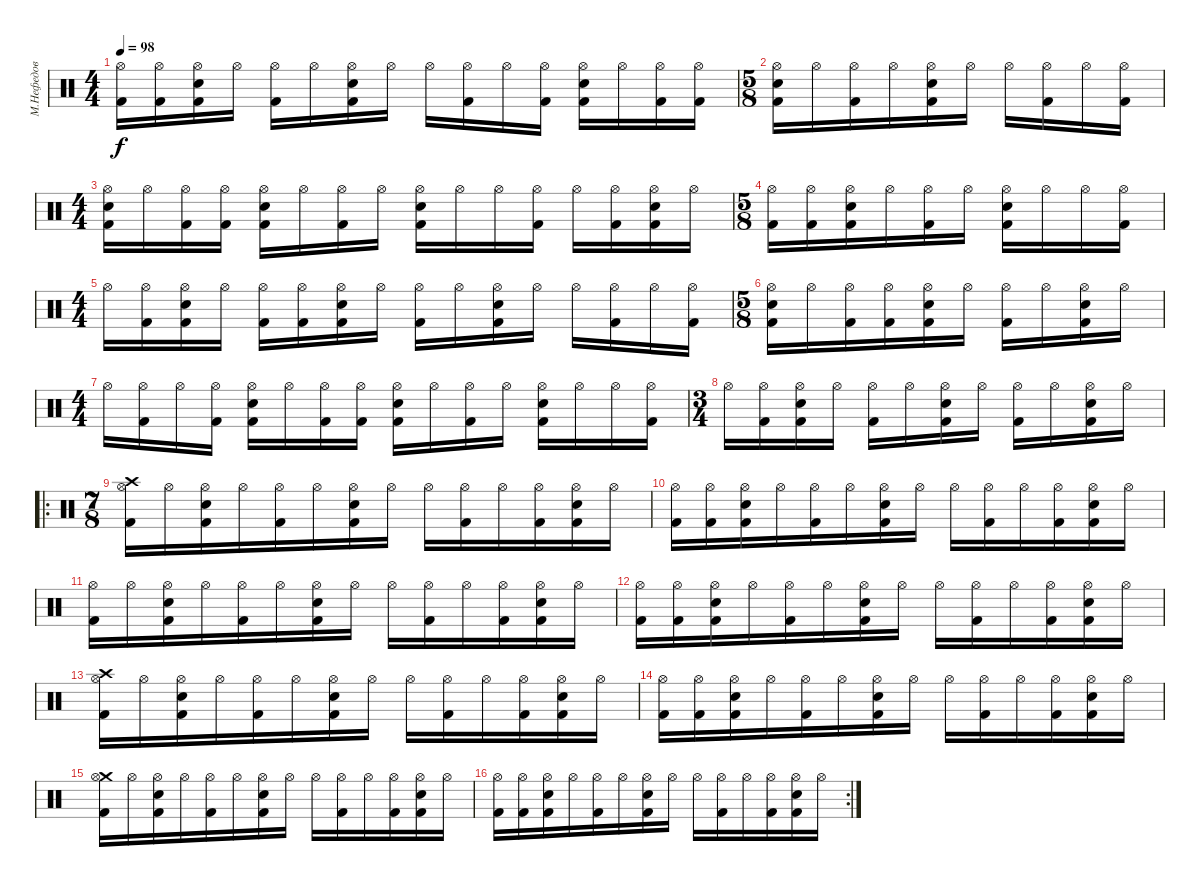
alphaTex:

\track ("М.Нефедов" "М.Нефедов") {instrument percussion}
\staff {score}
\articulation defaults
\ts (4 4)
\tempo 98
\clef neutral
\ks c
("Hi-Hat (open)" "Kick (hit) 2").16{dy f} ("Hi-Hat (open)" "Kick (hit) 2").16 ("Hi-Hat (open)" "Snare (hit) 2" "Kick (hit) 2").16 "Hi-Hat (open)".16 ("Hi-Hat (open)" "Kick (hit) 2").16 "Hi-Hat (open)".16 ("Hi-Hat (open)" "Snare (hit) 2" "Kick (hit) 2").16 "Hi-Hat (open)".16 "Hi-Hat (open)".16 ("Hi-Hat (open)" "Kick (hit) 2").16 "Hi-Hat (open)".16 ("Hi-Hat (open)" "Kick (hit) 2").16 ("Hi-Hat (open)" "Snare (hit) 2" "Kick (hit) 2").16 "Hi-Hat (open)".16 ("Hi-Hat (open)" "Kick (hit) 2").16 ("Hi-Hat (open)" "Kick (hit) 2").16 |
\ts (5 8)
("Hi-Hat (open)" "Snare (hit) 2" "Kick (hit) 2").16 "Hi-Hat (open)".16 ("Hi-Hat (open)" "Kick (hit) 2").16 "Hi-Hat (open)".16 ("Hi-Hat (open)" "Snare (hit) 2" "Kick (hit) 2").16 "Hi-Hat (open)".16 "Hi-Hat (open)".16 ("Hi-Hat (open)" "Kick (hit) 2").16 "Hi-Hat (open)".16 ("Hi-Hat (open)" "Kick (hit) 2").16 |
\ts (4 4)
("Hi-Hat (open)" "Snare (hit) 2" "Kick (hit) 2").16 "Hi-Hat (open)".16 ("Hi-Hat (open)" "Kick (hit) 2").16 ("Hi-Hat (open)" "Kick (hit) 2").16 ("Hi-Hat (open)" "Snare (hit) 2" "Kick (hit) 2").16 "Hi-Hat (open)".16 ("Hi-Hat (open)" "Kick (hit) 2").16 "Hi-Hat (open)".16 ("Hi-Hat (open)" "Snare (hit) 2" "Kick (hit) 2").16 "Hi-Hat (open)".16 "Hi-Hat (open)".16 ("Hi-Hat (open)" "Kick (hit) 2").16 "Hi-Hat (open)".16 ("Hi-Hat (open)" "Kick (hit) 2").16 ("Hi-Hat (open)" "Snare (hit) 2" "Kick (hit) 2").16 "Hi-Hat (open)".16 |
\ts (5 8)
("Hi-Hat (open)" "Kick (hit) 2").16 ("Hi-Hat (open)" "Kick (hit) 2").16 ("Hi-Hat (open)" "Snare (hit) 2" "Kick (hit) 2").16 "Hi-Hat (open)".16 ("Hi-Hat (open)" "Kick (hit) 2").16 "Hi-Hat (open)".16 ("Hi-Hat (open)" "Snare (hit) 2" "Kick (hit) 2").16 "Hi-Hat (open)".16 "Hi-Hat (open)".16 ("Hi-Hat (open)" "Kick (hit) 2").16 |
\ts (4 4)
"Hi-Hat (open)".16 ("Hi-Hat (open)" "Kick (hit) 2").16 ("Hi-Hat (open)" "Snare (hit) 2" "Kick (hit) 2").16 "Hi-Hat (open)".16 ("Hi-Hat (open)" "Kick (hit) 2").16 ("Hi-Hat (open)" "Kick (hit) 2").16 ("Hi-Hat (open)" "Snare (hit) 2" "Kick (hit) 2").16 "Hi-Hat (open)".16 ("Hi-Hat (open)" "Kick (hit) 2").16 "Hi-Hat (open)".16 ("Hi-Hat (open)" "Snare (hit) 2" "Kick (hit) 2").16 "Hi-Hat (open)".16 "Hi-Hat (open)".16 ("Hi-Hat (open)" "Kick (hit) 2").16 "Hi-Hat (open)".16 ("Hi-Hat (open)" "Kick (hit) 2").16 |
\ts (5 8)
("Hi-Hat (open)" "Snare (hit) 2" "Kick (hit) 2").16 "Hi-Hat (open)".16 ("Hi-Hat (open)" "Kick (hit) 2").16 ("Hi-Hat (open)" "Kick (hit) 2").16 ("Hi-Hat (open)" "Snare (hit) 2" "Kick (hit) 2").16 "Hi-Hat (open)".16 ("Hi-Hat (open)" "Kick (hit) 2").16 "Hi-Hat (open)".16 ("Hi-Hat (open)" "Snare (hit) 2" "Kick (hit) 2").16 "Hi-Hat (open)".16 |
\ts (4 4)
"Hi-Hat (open)".16 ("Hi-Hat (open)" "Kick (hit) 2").16 "Hi-Hat (open)".16 ("Hi-Hat (open)" "Kick (hit) 2").16 ("Hi-Hat (open)" "Snare (hit) 2" "Kick (hit) 2").16 "Hi-Hat (open)".16 ("Hi-Hat (open)" "Kick (hit) 2").16 ("Hi-Hat (open)" "Kick (hit) 2").16 ("Hi-Hat (open)" "Snare (hit) 2" "Kick (hit) 2").16 "Hi-Hat (open)".16 ("Hi-Hat (open)" "Kick (hit) 2").16 "Hi-Hat (open)".16 ("Hi-Hat (open)" "Snare (hit) 2" "Kick (hit) 2").16 "Hi-Hat (open)".16 "Hi-Hat (open)".16 ("Hi-Hat (open)" "Kick (hit) 2").16 |
\ts (3 4)
"Hi-Hat (open)".16 ("Hi-Hat (open)" "Kick (hit) 2").16 ("Hi-Hat (open)" "Snare (hit) 2" "Kick (hit) 2").16 "Hi-Hat (open)".16 ("Hi-Hat (open)" "Kick (hit) 2").16 "Hi-Hat (open)".16 ("Hi-Hat (open)" "Snare (hit) 2" "Kick (hit) 2").16 "Hi-Hat (open)".16 ("Hi-Hat (open)" "Kick (hit) 2").16 "Hi-Hat (open)".16 ("Hi-Hat (open)" "Snare (hit) 2" "Kick (hit) 2").16 "Hi-Hat (open)".16 |
\ro
\ts (7 8)
("Crash high (hit)" "Hi-Hat (open)" "Kick (hit) 2").16 "Hi-Hat (open)".16 ("Hi-Hat (open)" "Snare (hit) 2" "Kick (hit) 2").16 "Hi-Hat (open)".16 ("Hi-Hat (open)" "Kick (hit) 2").16 "Hi-Hat (open)".16 ("Hi-Hat (open)" "Snare (hit) 2" "Kick (hit) 2").16 "Hi-Hat (open)".16 "Hi-Hat (open)".16 ("Hi-Hat (open)" "Kick (hit) 2").16 "Hi-Hat (open)".16 ("Hi-Hat (open)" "Kick (hit) 2").16 ("Hi-Hat (open)" "Snare (hit) 2" "Kick (hit) 2").16 "Hi-Hat (open)".16 |
("Hi-Hat (open)" "Kick (hit) 2").16 ("Hi-Hat (open)" "Kick (hit) 2").16 ("Hi-Hat (open)" "Snare (hit) 2" "Kick (hit) 2").16 "Hi-Hat (open)".16 ("Hi-Hat (open)" "Kick (hit) 2").16 "Hi-Hat (open)".16 ("Hi-Hat (open)" "Snare (hit) 2" "Kick (hit) 2").16 "Hi-Hat (open)".16 "Hi-Hat (open)".16 ("Hi-Hat (open)" "Kick (hit) 2").16 "Hi-Hat (open)".16 ("Hi-Hat (open)" "Kick (hit) 2").16 ("Hi-Hat (open)" "Snare (hit) 2" "Kick (hit) 2").16 "Hi-Hat (open)".16 |
("Hi-Hat (open)" "Kick (hit) 2").16 "Hi-Hat (open)".16 ("Hi-Hat (open)" "Snare (hit) 2" "Kick (hit) 2").16 "Hi-Hat (open)".16 ("Hi-Hat (open)" "Kick (hit) 2").16 "Hi-Hat (open)".16 ("Hi-Hat (open)" "Snare (hit) 2" "Kick (hit) 2").16 "Hi-Hat (open)".16 "Hi-Hat (open)".16 ("Hi-Hat (open)" "Kick (hit) 2").16 "Hi-Hat (open)".16 ("Hi-Hat (open)" "Kick (hit) 2").16 ("Hi-Hat (open)" "Snare (hit) 2" "Kick (hit) 2").16 "Hi-Hat (open)".16 |
("Hi-Hat (open)" "Kick (hit) 2").16 ("Hi-Hat (open)" "Kick (hit) 2").16 ("Hi-Hat (open)" "Snare (hit) 2" "Kick (hit) 2").16 "Hi-Hat (open)".16 ("Hi-Hat (open)" "Kick (hit) 2").16 "Hi-Hat (open)".16 ("Hi-Hat (open)" "Snare (hit) 2" "Kick (hit) 2").16 "Hi-Hat (open)".16 "Hi-Hat (open)".16 ("Hi-Hat (open)" "Kick (hit) 2").16 "Hi-Hat (open)".16 ("Hi-Hat (open)" "Kick (hit) 2").16 ("Hi-Hat (open)" "Snare (hit) 2" "Kick (hit) 2").16 "Hi-Hat (open)".16 |
("Crash high (hit)" "Hi-Hat (open)" "Kick (hit) 2").16 "Hi-Hat (open)".16 ("Hi-Hat (open)" "Snare (hit) 2" "Kick (hit) 2").16 "Hi-Hat (open)".16 ("Hi-Hat (open)" "Kick (hit) 2").16 "Hi-Hat (open)".16 ("Hi-Hat (open)" "Snare (hit) 2" "Kick (hit) 2").16 "Hi-Hat (open)".16 "Hi-Hat (open)".16 ("Hi-Hat (open)" "Kick (hit) 2").16 "Hi-Hat (open)".16 ("Hi-Hat (open)" "Kick (hit) 2").16 ("Hi-Hat (open)" "Snare (hit) 2" "Kick (hit) 2").16 "Hi-Hat (open)".16 |
("Hi-Hat (open)" "Kick (hit) 2").16 ("Hi-Hat (open)" "Kick (hit) 2").16 ("Hi-Hat (open)" "Snare (hit) 2" "Kick (hit) 2").16 "Hi-Hat (open)".16 ("Hi-Hat (open)" "Kick (hit) 2").16 "Hi-Hat (open)".16 ("Hi-Hat (open)" "Snare (hit) 2" "Kick (hit) 2").16 "Hi-Hat (open)".16 "Hi-Hat (open)".16 ("Hi-Hat (open)" "Kick (hit) 2").16 "Hi-Hat (open)".16 ("Hi-Hat (open)" "Kick (hit) 2").16 ("Hi-Hat (open)" "Snare (hit) 2" "Kick (hit) 2").16 "Hi-Hat (open)".16 |
("Crash medium (hit)" "Hi-Hat (open)" "Kick (hit) 2").16 "Hi-Hat (open)".16 ("Hi-Hat (open)" "Snare (hit) 2" "Kick (hit) 2").16 "Hi-Hat (open)".16 ("Hi-Hat (open)" "Kick (hit) 2").16 "Hi-Hat (open)".16 ("Hi-Hat (open)" "Snare (hit) 2" "Kick (hit) 2").16 "Hi-Hat (open)".16 "Hi-Hat (open)".16 ("Hi-Hat (open)" "Kick (hit) 2").16 "Hi-Hat (open)".16 ("Hi-Hat (open)" "Kick (hit) 2").16 ("Hi-Hat (open)" "Snare (hit) 2" "Kick (hit) 2").16 "Hi-Hat (open)".16 |
\rc 2
("Hi-Hat (open)" "Kick (hit) 2").16 ("Hi-Hat (open)" "Kick (hit) 2").16 ("Hi-Hat (open)" "Snare (hit) 2" "Kick (hit) 2").16 "Hi-Hat (open)".16 ("Hi-Hat (open)" "Kick (hit) 2").16 "Hi-Hat (open)".16 ("Hi-Hat (open)" "Snare (hit) 2" "Kick (hit) 2").16 "Hi-Hat (open)".16 "Hi-Hat (open)".16 ("Hi-Hat (open)" "Kick (hit) 2").16 "Hi-Hat (open)".16 ("Hi-Hat (open)" "Kick (hit) 2").16 ("Hi-Hat (open)" "Snare (hit) 2" "Kick (hit) 2").16 "Hi-Hat (open)".16
